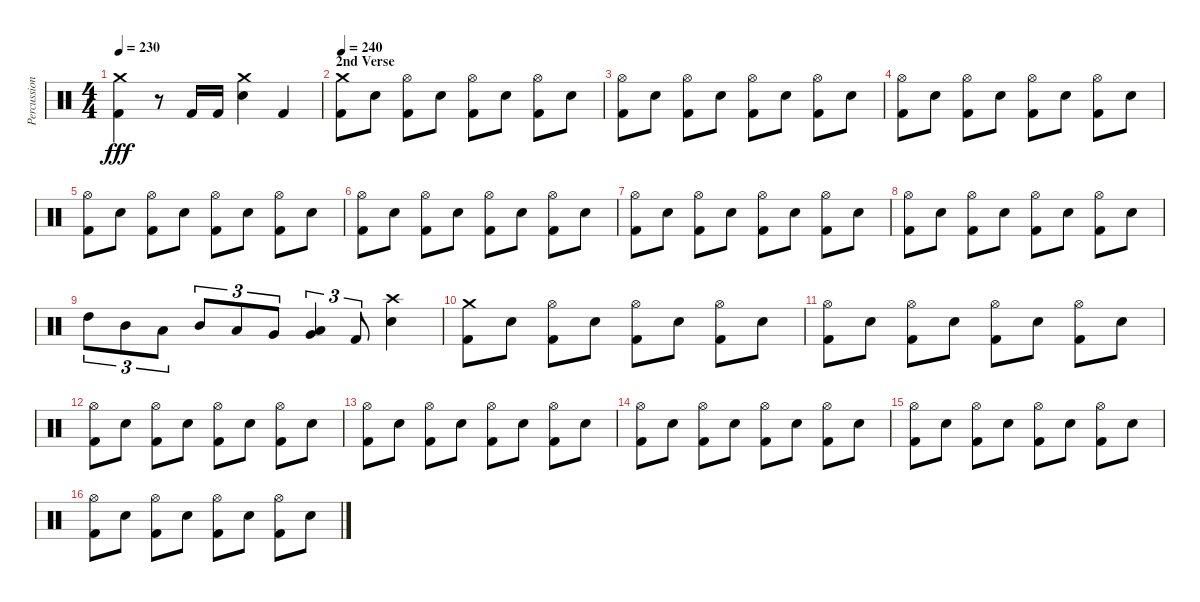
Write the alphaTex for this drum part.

\track ("Percussion" "Percussion") {instrument percussion}
\staff {score}
\articulation defaults
\ts (4 4)
\tempo 230
\clef neutral
\ks c
("Kick (hit) 2" "Crash medium (hit)").4{dy fff} r.8 "Kick (hit) 2".16 "Kick (hit) 2".16 ("Electric Snare (hit)" "Crash medium (hit)").4 "Kick (hit) 2".4 |
\section ("" "2nd Verse")
\tempo 240
("Kick (hit) 2" "Crash medium (hit)").8 "Electric Snare (hit)".8 ("Kick (hit) 2" "Hi-Hat (open)").8 "Electric Snare (hit)".8 ("Kick (hit) 2" "Hi-Hat (open)").8 "Electric Snare (hit)".8 ("Kick (hit) 2" "Hi-Hat (open)").8 "Electric Snare (hit)".8 |
("Kick (hit) 2" "Hi-Hat (open)").8 "Electric Snare (hit)".8 ("Kick (hit) 2" "Hi-Hat (open)").8 "Electric Snare (hit)".8 ("Kick (hit) 2" "Hi-Hat (open)").8 "Electric Snare (hit)".8 ("Kick (hit) 2" "Hi-Hat (open)").8 "Electric Snare (hit)".8 |
("Kick (hit) 2" "Hi-Hat (open)").8 "Electric Snare (hit)".8 ("Kick (hit) 2" "Hi-Hat (open)").8 "Electric Snare (hit)".8 ("Kick (hit) 2" "Hi-Hat (open)").8 "Electric Snare (hit)".8 ("Kick (hit) 2" "Hi-Hat (open)").8 "Electric Snare (hit)".8 |
("Kick (hit) 2" "Hi-Hat (open)").8 "Electric Snare (hit)".8 ("Kick (hit) 2" "Hi-Hat (open)").8 "Electric Snare (hit)".8 ("Kick (hit) 2" "Hi-Hat (open)").8 "Electric Snare (hit)".8 ("Kick (hit) 2" "Hi-Hat (open)").8 "Electric Snare (hit)".8 |
("Kick (hit) 2" "Hi-Hat (open)").8 "Electric Snare (hit)".8 ("Kick (hit) 2" "Hi-Hat (open)").8 "Electric Snare (hit)".8 ("Kick (hit) 2" "Hi-Hat (open)").8 "Electric Snare (hit)".8 ("Kick (hit) 2" "Hi-Hat (open)").8 "Electric Snare (hit)".8 |
("Kick (hit) 2" "Hi-Hat (open)").8 "Electric Snare (hit)".8 ("Kick (hit) 2" "Hi-Hat (open)").8 "Electric Snare (hit)".8 ("Kick (hit) 2" "Hi-Hat (open)").8 "Electric Snare (hit)".8 ("Kick (hit) 2" "Hi-Hat (open)").8 "Electric Snare (hit)".8 |
("Kick (hit) 2" "Hi-Hat (open)").8 "Electric Snare (hit)".8 ("Kick (hit) 2" "Hi-Hat (open)").8 "Electric Snare (hit)".8 ("Kick (hit) 2" "Hi-Hat (open)").8 "Electric Snare (hit)".8 ("Kick (hit) 2" "Hi-Hat (open)").8 "Electric Snare (hit)".8 |
"High Tom (hit)".8{tu (3 2)} "Mid Tom (hit)".8{tu (3 2)} "Low Tom (hit)".8{tu (3 2)} "Mid Tom (hit)".8{tu (3 2)} "Low Tom (hit)".8{tu (3 2)} "Very Low Tom (hit)".8{tu (3 2)} ("Low Tom (hit)" "Very Low Tom (hit)").4{tu (3 2)} "Kick (hit) 2".8{tu (3 2)} ("Electric Snare (hit)" "Crash high (hit)").4 |
("Kick (hit) 2" "Crash medium (hit)").8 "Electric Snare (hit)".8 ("Kick (hit) 2" "Hi-Hat (open)").8 "Electric Snare (hit)".8 ("Kick (hit) 2" "Hi-Hat (open)").8 "Electric Snare (hit)".8 ("Kick (hit) 2" "Hi-Hat (open)").8 "Electric Snare (hit)".8 |
("Kick (hit) 2" "Hi-Hat (open)").8 "Electric Snare (hit)".8 ("Kick (hit) 2" "Hi-Hat (open)").8 "Electric Snare (hit)".8 ("Kick (hit) 2" "Hi-Hat (open)").8 "Electric Snare (hit)".8 ("Kick (hit) 2" "Hi-Hat (open)").8 "Electric Snare (hit)".8 |
("Kick (hit) 2" "Hi-Hat (open)").8 "Electric Snare (hit)".8 ("Kick (hit) 2" "Hi-Hat (open)").8 "Electric Snare (hit)".8 ("Kick (hit) 2" "Hi-Hat (open)").8 "Electric Snare (hit)".8 ("Kick (hit) 2" "Hi-Hat (open)").8 "Electric Snare (hit)".8 |
("Kick (hit) 2" "Hi-Hat (open)").8 "Electric Snare (hit)".8 ("Kick (hit) 2" "Hi-Hat (open)").8 "Electric Snare (hit)".8 ("Kick (hit) 2" "Hi-Hat (open)").8 "Electric Snare (hit)".8 ("Kick (hit) 2" "Hi-Hat (open)").8 "Electric Snare (hit)".8 |
("Kick (hit) 2" "Hi-Hat (open)").8 "Electric Snare (hit)".8 ("Kick (hit) 2" "Hi-Hat (open)").8 "Electric Snare (hit)".8 ("Kick (hit) 2" "Hi-Hat (open)").8 "Electric Snare (hit)".8 ("Kick (hit) 2" "Hi-Hat (open)").8 "Electric Snare (hit)".8 |
("Kick (hit) 2" "Hi-Hat (open)").8 "Electric Snare (hit)".8 ("Kick (hit) 2" "Hi-Hat (open)").8 "Electric Snare (hit)".8 ("Kick (hit) 2" "Hi-Hat (open)").8 "Electric Snare (hit)".8 ("Kick (hit) 2" "Hi-Hat (open)").8 "Electric Snare (hit)".8 |
("Kick (hit) 2" "Hi-Hat (open)").8 "Electric Snare (hit)".8 ("Kick (hit) 2" "Hi-Hat (open)").8 "Electric Snare (hit)".8 ("Kick (hit) 2" "Hi-Hat (open)").8 "Electric Snare (hit)".8 ("Kick (hit) 2" "Hi-Hat (open)").8 "Electric Snare (hit)".8
